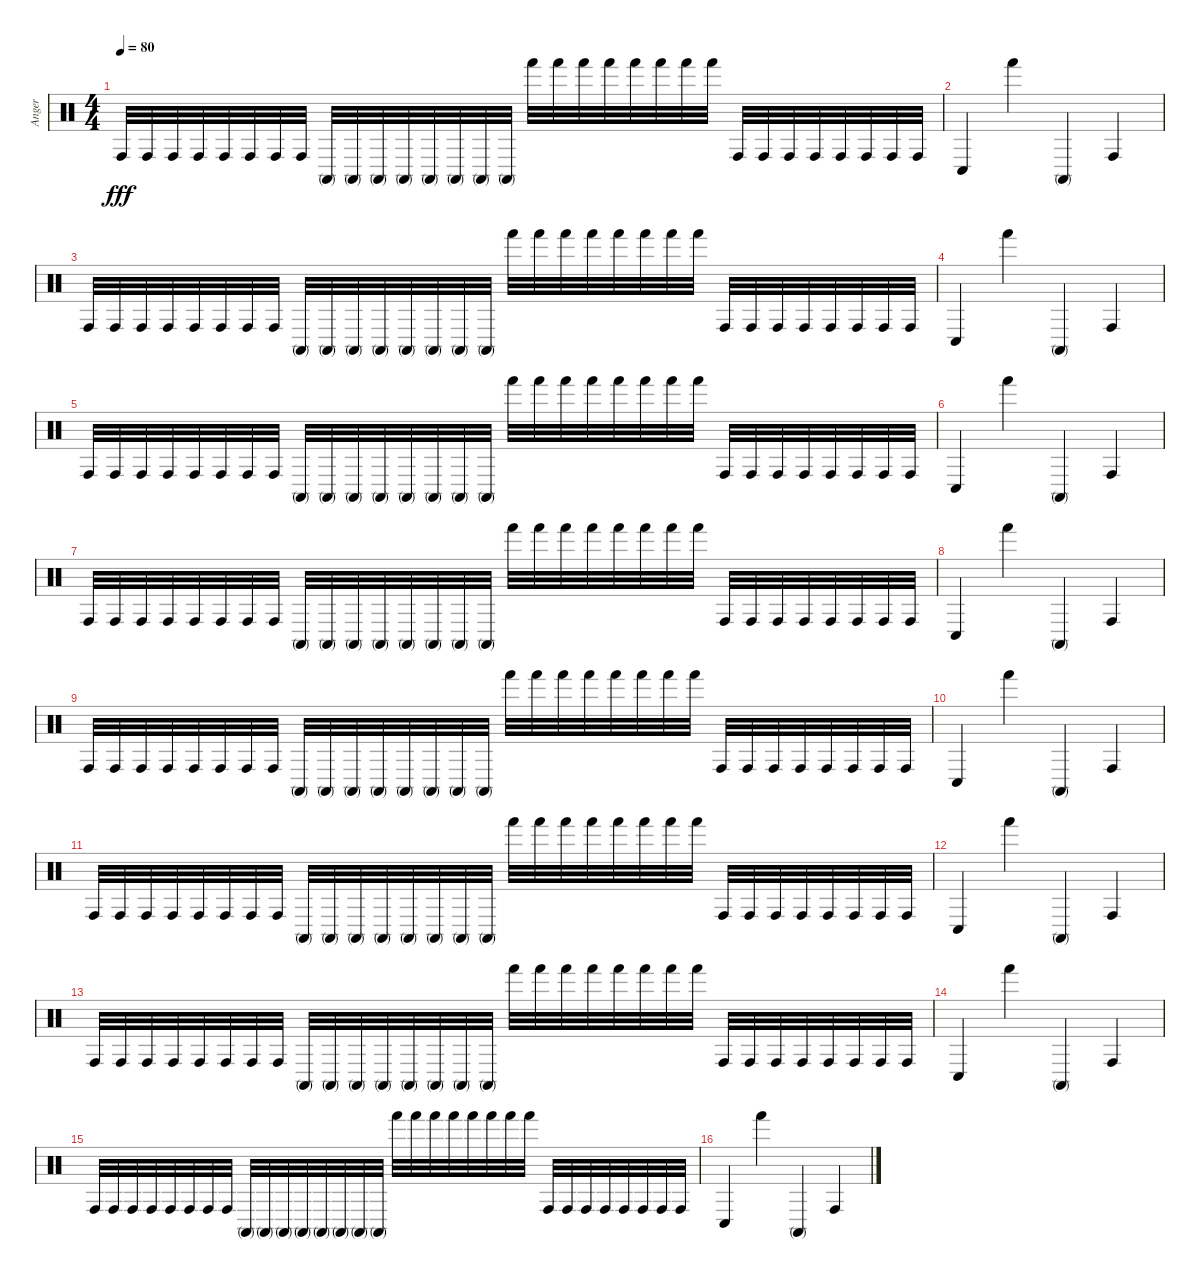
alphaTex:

\track ("Anger" "Anger") {instrument percussion}
\staff {score}
\articulation defaults
\ts (4 4)
\tempo 80
\clef neutral
\ks c "Conga high (hit)".32{dy fff} "Conga high (hit)".32 "Conga high (hit)".32 "Conga high (hit)".32 "Conga high (hit)".32 "Conga high (hit)".32 "Conga high (hit)".32 "Conga high (hit)".32 "Conga high (mute)".32 "Conga high (mute)".32 "Conga high (mute)".32 "Conga high (mute)".32 "Conga high (mute)".32 "Conga high (mute)".32 "Conga high (mute)".32 "Conga high (mute)".32 "Hand (hit)".32 "Hand (hit)".32 "Hand (hit)".32 "Hand (hit)".32 "Hand (hit)".32 "Hand (hit)".32 "Hand (hit)".32 "Hand (hit)".32 "Conga high (hit)".32 "Conga high (hit)".32 "Conga high (hit)".32 "Conga high (hit)".32 "Conga high (hit)".32 "Conga high (hit)".32 "Conga high (hit)".32 "Conga high (hit)".32
|
"Conga low (hit)".4 "Hand (hit)".4 "Conga high (mute)".4 "Conga high (hit)".4 |
"Conga high (hit)".32 "Conga high (hit)".32 "Conga high (hit)".32 "Conga high (hit)".32 "Conga high (hit)".32 "Conga high (hit)".32 "Conga high (hit)".32 "Conga high (hit)".32 "Conga high (mute)".32 "Conga high (mute)".32 "Conga high (mute)".32 "Conga high (mute)".32 "Conga high (mute)".32 "Conga high (mute)".32 "Conga high (mute)".32 "Conga high (mute)".32 "Hand (hit)".32 "Hand (hit)".32 "Hand (hit)".32 "Hand (hit)".32 "Hand (hit)".32 "Hand (hit)".32 "Hand (hit)".32 "Hand (hit)".32 "Conga high (hit)".32 "Conga high (hit)".32 "Conga high (hit)".32 "Conga high (hit)".32 "Conga high (hit)".32 "Conga high (hit)".32 "Conga high (hit)".32 "Conga high (hit)".32 |
"Conga low (hit)".4 "Hand (hit)".4 "Conga high (mute)".4 "Conga high (hit)".4 |
"Conga high (hit)".32 "Conga high (hit)".32 "Conga high (hit)".32 "Conga high (hit)".32 "Conga high (hit)".32 "Conga high (hit)".32 "Conga high (hit)".32 "Conga high (hit)".32 "Conga high (mute)".32 "Conga high (mute)".32 "Conga high (mute)".32 "Conga high (mute)".32 "Conga high (mute)".32 "Conga high (mute)".32 "Conga high (mute)".32 "Conga high (mute)".32 "Hand (hit)".32 "Hand (hit)".32 "Hand (hit)".32 "Hand (hit)".32 "Hand (hit)".32 "Hand (hit)".32 "Hand (hit)".32 "Hand (hit)".32 "Conga high (hit)".32 "Conga high (hit)".32 "Conga high (hit)".32 "Conga high (hit)".32 "Conga high (hit)".32 "Conga high (hit)".32 "Conga high (hit)".32 "Conga high (hit)".32 |
"Conga low (hit)".4 "Hand (hit)".4 "Conga high (mute)".4 "Conga high (hit)".4 |
"Conga high (hit)".32 "Conga high (hit)".32 "Conga high (hit)".32 "Conga high (hit)".32 "Conga high (hit)".32 "Conga high (hit)".32 "Conga high (hit)".32 "Conga high (hit)".32 "Conga high (mute)".32 "Conga high (mute)".32 "Conga high (mute)".32 "Conga high (mute)".32 "Conga high (mute)".32 "Conga high (mute)".32 "Conga high (mute)".32 "Conga high (mute)".32 "Hand (hit)".32 "Hand (hit)".32 "Hand (hit)".32 "Hand (hit)".32 "Hand (hit)".32 "Hand (hit)".32 "Hand (hit)".32 "Hand (hit)".32 "Conga high (hit)".32 "Conga high (hit)".32 "Conga high (hit)".32 "Conga high (hit)".32 "Conga high (hit)".32 "Conga high (hit)".32 "Conga high (hit)".32 "Conga high (hit)".32 |
"Conga low (hit)".4 "Hand (hit)".4 "Conga high (mute)".4 "Conga high (hit)".4 |
"Conga high (hit)".32 "Conga high (hit)".32 "Conga high (hit)".32 "Conga high (hit)".32 "Conga high (hit)".32 "Conga high (hit)".32 "Conga high (hit)".32 "Conga high (hit)".32 "Conga high (mute)".32 "Conga high (mute)".32 "Conga high (mute)".32 "Conga high (mute)".32 "Conga high (mute)".32 "Conga high (mute)".32 "Conga high (mute)".32 "Conga high (mute)".32 "Hand (hit)".32 "Hand (hit)".32 "Hand (hit)".32 "Hand (hit)".32 "Hand (hit)".32 "Hand (hit)".32 "Hand (hit)".32 "Hand (hit)".32 "Conga high (hit)".32 "Conga high (hit)".32 "Conga high (hit)".32 "Conga high (hit)".32 "Conga high (hit)".32 "Conga high (hit)".32 "Conga high (hit)".32 "Conga high (hit)".32 |
"Conga low (hit)".4 "Hand (hit)".4 "Conga high (mute)".4 "Conga high (hit)".4 |
"Conga high (hit)".32 "Conga high (hit)".32 "Conga high (hit)".32 "Conga high (hit)".32 "Conga high (hit)".32 "Conga high (hit)".32 "Conga high (hit)".32 "Conga high (hit)".32 "Conga high (mute)".32 "Conga high (mute)".32 "Conga high (mute)".32 "Conga high (mute)".32 "Conga high (mute)".32 "Conga high (mute)".32 "Conga high (mute)".32 "Conga high (mute)".32 "Hand (hit)".32 "Hand (hit)".32 "Hand (hit)".32 "Hand (hit)".32 "Hand (hit)".32 "Hand (hit)".32 "Hand (hit)".32 "Hand (hit)".32 "Conga high (hit)".32 "Conga high (hit)".32 "Conga high (hit)".32 "Conga high (hit)".32 "Conga high (hit)".32 "Conga high (hit)".32 "Conga high (hit)".32 "Conga high (hit)".32 |
"Conga low (hit)".4 "Hand (hit)".4 "Conga high (mute)".4 "Conga high (hit)".4 |
"Conga high (hit)".32 "Conga high (hit)".32 "Conga high (hit)".32 "Conga high (hit)".32 "Conga high (hit)".32 "Conga high (hit)".32 "Conga high (hit)".32 "Conga high (hit)".32 "Conga high (mute)".32 "Conga high (mute)".32 "Conga high (mute)".32 "Conga high (mute)".32 "Conga high (mute)".32 "Conga high (mute)".32 "Conga high (mute)".32 "Conga high (mute)".32 "Hand (hit)".32 "Hand (hit)".32 "Hand (hit)".32 "Hand (hit)".32 "Hand (hit)".32 "Hand (hit)".32 "Hand (hit)".32 "Hand (hit)".32 "Conga high (hit)".32 "Conga high (hit)".32 "Conga high (hit)".32 "Conga high (hit)".32 "Conga high (hit)".32 "Conga high (hit)".32 "Conga high (hit)".32 "Conga high (hit)".32 |
"Conga low (hit)".4 "Hand (hit)".4 "Conga high (mute)".4 "Conga high (hit)".4 |
"Conga high (hit)".32 "Conga high (hit)".32 "Conga high (hit)".32 "Conga high (hit)".32 "Conga high (hit)".32 "Conga high (hit)".32 "Conga high (hit)".32 "Conga high (hit)".32 "Conga high (mute)".32 "Conga high (mute)".32 "Conga high (mute)".32 "Conga high (mute)".32 "Conga high (mute)".32 "Conga high (mute)".32 "Conga high (mute)".32 "Conga high (mute)".32 "Hand (hit)".32 "Hand (hit)".32 "Hand (hit)".32 "Hand (hit)".32 "Hand (hit)".32 "Hand (hit)".32 "Hand (hit)".32 "Hand (hit)".32 "Conga high (hit)".32 "Conga high (hit)".32 "Conga high (hit)".32 "Conga high (hit)".32 "Conga high (hit)".32 "Conga high (hit)".32 "Conga high (hit)".32 "Conga high (hit)".32 |
"Conga low (hit)".4 "Hand (hit)".4 "Conga high (mute)".4 "Conga high (hit)".4
